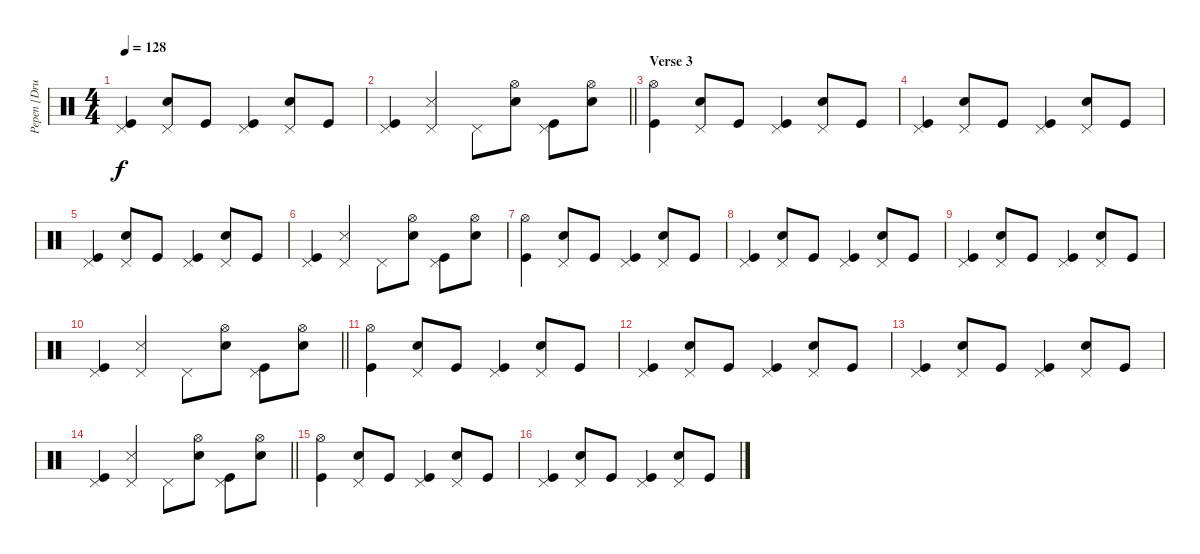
\track ("Pepen [Drum]" "Pepen [Dru") {instrument percussion}
\staff {score}
\articulation defaults
\ts (4 4)
\tempo 128
\clef neutral
\ks c
("Pedal Hi-Hat (hit)" "Kick (hit)").4{dy f} ("Pedal Hi-Hat (hit)" "Electric Snare (hit)").8 "Kick (hit)".8 ("Pedal Hi-Hat (hit)" "Kick (hit)").4 ("Pedal Hi-Hat (hit)" "Electric Snare (hit)").8 "Kick (hit)".8 |
\barLineRight lightlight
("Pedal Hi-Hat (hit)" "Kick (hit)").4 ("Pedal Hi-Hat (hit)" "Snare (side stick) 3").4 "Pedal Hi-Hat (hit)".8 ("Hi-Hat (open)" "Electric Snare (hit)").8 ("Pedal Hi-Hat (hit)" "Kick (hit)").8 ("Hi-Hat (open)" "Electric Snare (hit)").8 |
\section ("" "Verse 3")
("Hi-Hat (open)" "Kick (hit)").4 ("Pedal Hi-Hat (hit)" "Electric Snare (hit)").8 "Kick (hit)".8 ("Pedal Hi-Hat (hit)" "Kick (hit)").4 ("Pedal Hi-Hat (hit)" "Electric Snare (hit)").8 "Kick (hit)".8 |
("Pedal Hi-Hat (hit)" "Kick (hit)").4 ("Pedal Hi-Hat (hit)" "Electric Snare (hit)").8 "Kick (hit)".8 ("Pedal Hi-Hat (hit)" "Kick (hit)").4 ("Pedal Hi-Hat (hit)" "Electric Snare (hit)").8 "Kick (hit)".8 |
("Pedal Hi-Hat (hit)" "Kick (hit)").4 ("Pedal Hi-Hat (hit)" "Electric Snare (hit)").8 "Kick (hit)".8 ("Pedal Hi-Hat (hit)" "Kick (hit)").4 ("Pedal Hi-Hat (hit)" "Electric Snare (hit)").8 "Kick (hit)".8 |
("Pedal Hi-Hat (hit)" "Kick (hit)").4 ("Pedal Hi-Hat (hit)" "Snare (side stick) 3").4 "Pedal Hi-Hat (hit)".8 ("Hi-Hat (open)" "Electric Snare (hit)").8 ("Pedal Hi-Hat (hit)" "Kick (hit)").8 ("Hi-Hat (open)" "Electric Snare (hit)").8 |
("Hi-Hat (open)" "Kick (hit)").4 ("Pedal Hi-Hat (hit)" "Electric Snare (hit)").8 "Kick (hit)".8 ("Pedal Hi-Hat (hit)" "Kick (hit)").4 ("Pedal Hi-Hat (hit)" "Electric Snare (hit)").8 "Kick (hit)".8 |
("Pedal Hi-Hat (hit)" "Kick (hit)").4 ("Pedal Hi-Hat (hit)" "Electric Snare (hit)").8 "Kick (hit)".8 ("Pedal Hi-Hat (hit)" "Kick (hit)").4 ("Pedal Hi-Hat (hit)" "Electric Snare (hit)").8 "Kick (hit)".8 |
("Pedal Hi-Hat (hit)" "Kick (hit)").4 ("Pedal Hi-Hat (hit)" "Electric Snare (hit)").8 "Kick (hit)".8 ("Pedal Hi-Hat (hit)" "Kick (hit)").4 ("Pedal Hi-Hat (hit)" "Electric Snare (hit)").8 "Kick (hit)".8 |
\barLineRight lightlight
("Pedal Hi-Hat (hit)" "Kick (hit)").4 ("Pedal Hi-Hat (hit)" "Snare (side stick) 3").4 "Pedal Hi-Hat (hit)".8 ("Hi-Hat (open)" "Electric Snare (hit)").8 ("Pedal Hi-Hat (hit)" "Kick (hit)").8 ("Hi-Hat (open)" "Electric Snare (hit)").8 |
("Hi-Hat (open)" "Kick (hit)").4 ("Pedal Hi-Hat (hit)" "Electric Snare (hit)").8 "Kick (hit)".8 ("Pedal Hi-Hat (hit)" "Kick (hit)").4 ("Pedal Hi-Hat (hit)" "Electric Snare (hit)").8 "Kick (hit)".8 |
("Pedal Hi-Hat (hit)" "Kick (hit)").4 ("Pedal Hi-Hat (hit)" "Electric Snare (hit)").8 "Kick (hit)".8 ("Pedal Hi-Hat (hit)" "Kick (hit)").4 ("Pedal Hi-Hat (hit)" "Electric Snare (hit)").8 "Kick (hit)".8 |
("Pedal Hi-Hat (hit)" "Kick (hit)").4 ("Pedal Hi-Hat (hit)" "Electric Snare (hit)").8 "Kick (hit)".8 ("Pedal Hi-Hat (hit)" "Kick (hit)").4 ("Pedal Hi-Hat (hit)" "Electric Snare (hit)").8 "Kick (hit)".8 |
\barLineRight lightlight
("Pedal Hi-Hat (hit)" "Kick (hit)").4 ("Pedal Hi-Hat (hit)" "Snare (side stick) 3").4 "Pedal Hi-Hat (hit)".8 ("Hi-Hat (open)" "Electric Snare (hit)").8 ("Pedal Hi-Hat (hit)" "Kick (hit)").8 ("Hi-Hat (open)" "Electric Snare (hit)").8 |
("Hi-Hat (open)" "Kick (hit)").4 ("Pedal Hi-Hat (hit)" "Electric Snare (hit)").8 "Kick (hit)".8 ("Pedal Hi-Hat (hit)" "Kick (hit)").4 ("Pedal Hi-Hat (hit)" "Electric Snare (hit)").8 "Kick (hit)".8 |
("Pedal Hi-Hat (hit)" "Kick (hit)").4 ("Pedal Hi-Hat (hit)" "Electric Snare (hit)").8 "Kick (hit)".8 ("Pedal Hi-Hat (hit)" "Kick (hit)").4 ("Pedal Hi-Hat (hit)" "Electric Snare (hit)").8 "Kick (hit)".8
